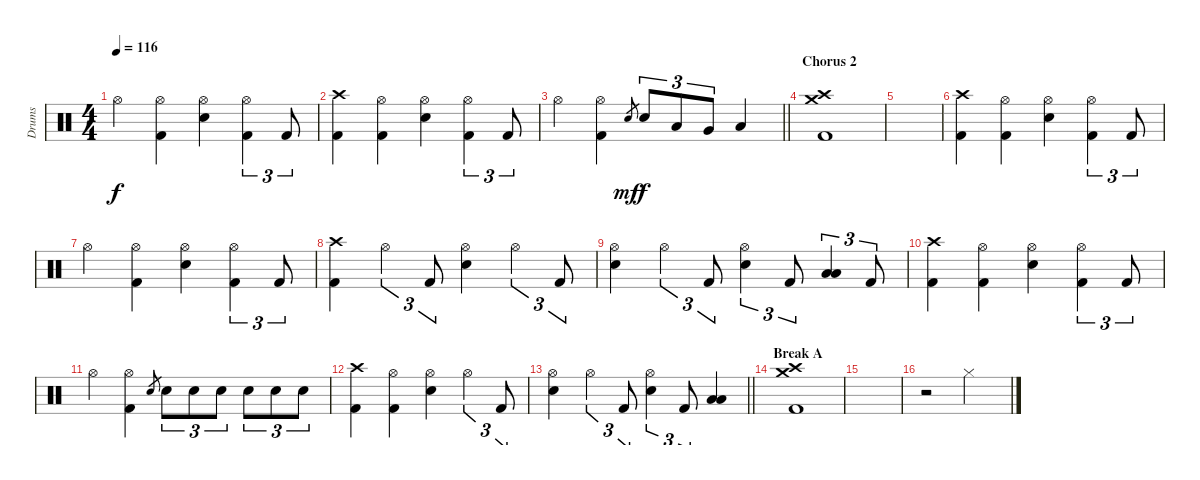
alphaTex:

\track ("Drums" "Drums") {instrument percussion}
\staff {score}
\articulation defaults
\ts (4 4)
\tempo 116
\clef neutral
\ks c "Hi-Hat (open)".4{dy f}
("Hi-Hat (open)" "Kick (hit) 2").4 ("Electric Snare (hit)" "Hi-Hat (open)").4 ("Hi-Hat (open)" "Kick (hit) 2").4{tu (3 2)} "Kick (hit) 2".8{tu (3 2)} |
("Crash high (hit)" "Kick (hit) 2").4 ("Hi-Hat (open)" "Kick (hit) 2").4 ("Electric Snare (hit)" "Hi-Hat (open)").4 ("Hi-Hat (open)" "Kick (hit) 2").4{tu (3 2)} "Kick (hit) 2".8{tu (3 2)} |
\barLineRight lightlight "Hi-Hat (open)".4
("Hi-Hat (open)" "Kick (hit) 2").4 "Electric Snare (hit)".8{gr dy mf} "Electric Snare (hit)".8{tu (3 2) dy f} "Low Tom (hit)".8{tu (3 2)} "Very Low Tom (hit)".8{tu (3 2)} "Low Floor Tom (hit)".4 |
\section ("" "Chorus 2")
("Crash medium (hit)" "Crash high (hit)" "Kick (hit) 2").1 |
|
("Crash high (hit)" "Kick (hit) 2").4 ("Hi-Hat (open)" "Kick (hit) 2").4 ("Electric Snare (hit)" "Hi-Hat (open)").4 ("Hi-Hat (open)" "Kick (hit) 2").4{tu (3 2)} "Kick (hit) 2".8{tu (3 2)} |
"Hi-Hat (open)".4 ("Hi-Hat (open)" "Kick (hit) 2").4 ("Electric Snare (hit)" "Hi-Hat (open)").4 ("Hi-Hat (open)" "Kick (hit) 2").4{tu (3 2)} "Kick (hit) 2".8{tu (3 2)} |
("Crash high (hit)" "Kick (hit) 2").4 "Hi-Hat (open)".4{tu (3 2)} "Kick (hit) 2".8{tu (3 2)} ("Electric Snare (hit)" "Hi-Hat (open)").4 "Hi-Hat (open)".4{tu (3 2)} "Kick (hit) 2".8{tu (3 2)} |
("Electric Snare (hit)" "Hi-Hat (open)").4 "Hi-Hat (open)".4{tu (3 2)} "Kick (hit) 2".8{tu (3 2)} ("Electric Snare (hit)" "Hi-Hat (open)").4{tu (3 2)} "Kick (hit) 2".8{tu (3 2)} ("Low Tom (hit)" "Low Floor Tom (hit)").4{tu (3 2)} "Kick (hit) 2".8{tu (3 2)} |
("Crash high (hit)" "Kick (hit) 2").4 ("Hi-Hat (open)" "Kick (hit) 2").4 ("Electric Snare (hit)" "Hi-Hat (open)").4 ("Hi-Hat (open)" "Kick (hit) 2").4{tu (3 2)} "Kick (hit) 2".8{tu (3 2)} |
"Hi-Hat (open)".4 ("Hi-Hat (open)" "Kick (hit) 2").4 "Electric Snare (hit)".8{gr} "Electric Snare (hit)".8{tu (3 2)} "Electric Snare (hit)".8{tu (3 2)} "Electric Snare (hit)".8{tu (3 2)} "Electric Snare (hit)".8{tu (3 2)} "Electric Snare (hit)".8{tu (3 2)} "Electric Snare (hit)".8{tu (3 2)} |
("Crash high (hit)" "Kick (hit) 2").4 ("Hi-Hat (open)" "Kick (hit) 2").4 ("Electric Snare (hit)" "Hi-Hat (open)").4 "Hi-Hat (open)".4{tu (3 2)} "Kick (hit) 2".8{tu (3 2)} |
\barLineRight lightlight
("Electric Snare (hit)" "Hi-Hat (open)").4 "Hi-Hat (open)".4{tu (3 2)} "Kick (hit) 2".8{tu (3 2)} ("Electric Snare (hit)" "Hi-Hat (open)").4{tu (3 2)} "Kick (hit) 2".8{tu (3 2)} ("Low Tom (hit)" "Low Floor Tom (hit)").4 |
\section ("" "Break A")
("Crash high (hit)" "Crash medium (hit)" "Kick (hit) 2").1 |
|
r.2{balance 12} "Hi-Hat (closed)".2
